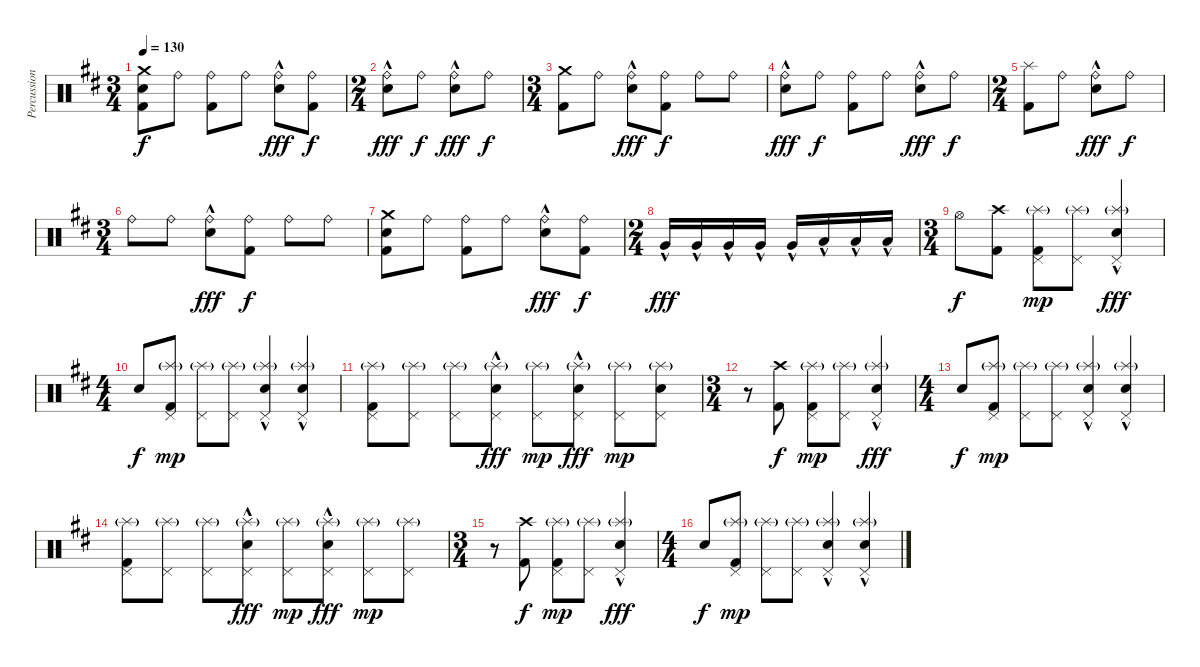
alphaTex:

\track ("Percussion" "Percussion") {instrument percussion bank 110}
\staff {score}
\articulation defaults
\ts (3 4)
\tempo 130
\clef neutral
\ks d
("Crash medium (hit)" "Electric Snare (hit)" "Kick (hit) 2").8{dy f} "Ride (bell)".8 ("Ride (bell)" "Kick (hit) 2").8 "Ride (bell)".8 ("Ride (bell)" "Electric Snare (hit)"{hac}).8{dy fff} ("Ride (bell)" "Kick (hit) 2").8{dy f} |
\ts (2 4)
("Ride (bell)" "Electric Snare (hit)"{hac}).8{dy fff} "Ride (bell)".8{dy f} ("Ride (bell)" "Electric Snare (hit)"{hac}).8{dy fff} "Ride (bell)".8{dy f} |
\ts (3 4)
("Crash medium (hit)" "Kick (hit) 2").8 "Ride (bell)".8 ("Ride (bell)" "Electric Snare (hit)"{hac}).8{dy fff} ("Ride (bell)" "Kick (hit) 2").8{dy f} "Ride (bell)".8 "Ride (bell)".8 |
("Ride (bell)" "Electric Snare (hit)"{hac}).8{dy fff} "Ride (bell)".8{dy f} ("Ride (bell)" "Kick (hit) 2").8 "Ride (bell)".8 ("Ride (bell)" "Electric Snare (hit)"{hac}).8{dy fff} "Ride (bell)".8{dy f} |
\ts (2 4)
("Splash (hit)" "Kick (hit) 2").8 "Ride (bell)".8 ("Ride (bell)" "Electric Snare (hit)"{hac}).8{dy fff} "Ride (bell)".8{dy f} |
\ts (3 4)
"Ride (bell)".8 "Ride (bell)".8 ("Ride (bell)" "Electric Snare (hit)"{hac}).8{dy fff} ("Ride (bell)" "Kick (hit) 2").8{dy f} "Ride (bell)".8 "Ride (bell)".8 |
("Crash medium (hit)" "Electric Snare (hit)" "Kick (hit) 2").8 "Ride (bell)".8 ("Ride (bell)" "Kick (hit) 2").8 "Ride (bell)".8 ("Ride (bell)" "Electric Snare (hit)"{hac}).8{dy fff} ("Ride (bell)" "Kick (hit) 2").8{dy f} |
\ts (2 4)
"Very Low Tom (hit)"{hac}.16{dy fff} "Very Low Tom (hit)"{hac}.16 "Very Low Tom (hit)"{hac}.16 "Very Low Tom (hit)"{hac}.16 "Very Low Tom (hit)"{hac}.16 "Low Floor Tom (hit)"{hac}.16 "Low Floor Tom (hit)"{hac}.16 "Low Floor Tom (hit)"{hac}.16 |
\ts (3 4)
"Hi-Hat (open)".8{dy f} ("Crash high (hit)" "Kick (hit) 2").8 ("Splash (hit)"{g} "Pedal Hi-Hat (hit)" "Kick (hit) 2").8{dy mp} ("Splash (hit)"{g} "Pedal Hi-Hat (hit)").8 ("Splash (hit)"{g} "Pedal Hi-Hat (hit)" "Electric Snare (hit)"{hac}).4{dy fff} |
\ts (4 4)
"Electric Snare (hit)".8{dy f} ("Kick (hit) 2" "Pedal Hi-Hat (hit)" "Splash (hit)"{g}).8{dy mp} ("Pedal Hi-Hat (hit)" "Splash (hit)"{g}).8 ("Pedal Hi-Hat (hit)" "Splash (hit)"{g}).8 ("Electric Snare (hit)"{hac} "Pedal Hi-Hat (hit)" "Splash (hit)"{g}).4 ("Electric Snare (hit)"{hac} "Pedal Hi-Hat (hit)" "Splash (hit)"{g}).4 |
("Splash (hit)"{g} "Pedal Hi-Hat (hit)" "Kick (hit) 2").8 ("Splash (hit)"{g} "Pedal Hi-Hat (hit)").8 ("Splash (hit)"{g} "Pedal Hi-Hat (hit)").8 ("Splash (hit)"{g} "Pedal Hi-Hat (hit)" "Electric Snare (hit)"{hac}).8{dy fff} ("Splash (hit)"{g} "Pedal Hi-Hat (hit)").8{dy mp} ("Splash (hit)"{g} "Pedal Hi-Hat (hit)" "Electric Snare (hit)"{hac}).8{dy fff} ("Splash (hit)"{g} "Pedal Hi-Hat (hit)").8{dy mp} ("Splash (hit)"{g} "Pedal Hi-Hat (hit)" "Electric Snare (hit)").8 |
\ts (3 4)
r.8 ("Crash high (hit)" "Kick (hit) 2").8{dy f} ("Splash (hit)"{g} "Pedal Hi-Hat (hit)" "Kick (hit) 2").8{dy mp} ("Splash (hit)"{g} "Pedal Hi-Hat (hit)").8 ("Splash (hit)"{g} "Pedal Hi-Hat (hit)" "Electric Snare (hit)"{hac}).4{dy fff} |
\ts (4 4)
"Electric Snare (hit)".8{dy f} ("Kick (hit) 2" "Pedal Hi-Hat (hit)" "Splash (hit)"{g}).8{dy mp} ("Pedal Hi-Hat (hit)" "Splash (hit)"{g}).8 ("Pedal Hi-Hat (hit)" "Splash (hit)"{g}).8 ("Electric Snare (hit)"{hac} "Pedal Hi-Hat (hit)" "Splash (hit)"{g}).4 ("Electric Snare (hit)"{hac} "Pedal Hi-Hat (hit)" "Splash (hit)"{g}).4 |
("Splash (hit)"{g} "Pedal Hi-Hat (hit)" "Kick (hit) 2").8 ("Splash (hit)"{g} "Pedal Hi-Hat (hit)").8 ("Splash (hit)"{g} "Pedal Hi-Hat (hit)").8 ("Splash (hit)"{g} "Pedal Hi-Hat (hit)" "Electric Snare (hit)"{hac}).8{dy fff} ("Splash (hit)"{g} "Pedal Hi-Hat (hit)").8{dy mp} ("Splash (hit)"{g} "Pedal Hi-Hat (hit)" "Electric Snare (hit)"{hac}).8{dy fff} ("Splash (hit)"{g} "Pedal Hi-Hat (hit)").8{dy mp} ("Splash (hit)"{g} "Pedal Hi-Hat (hit)").8 |
\ts (3 4)
r.8 ("Crash high (hit)" "Kick (hit) 2").8{dy f} ("Splash (hit)"{g} "Pedal Hi-Hat (hit)" "Kick (hit) 2").8{dy mp} ("Splash (hit)"{g} "Pedal Hi-Hat (hit)").8 ("Splash (hit)"{g} "Pedal Hi-Hat (hit)" "Electric Snare (hit)"{hac}).4{dy fff} |
\ts (4 4)
"Electric Snare (hit)".8{dy f} ("Kick (hit) 2" "Pedal Hi-Hat (hit)" "Splash (hit)"{g}).8{dy mp} ("Pedal Hi-Hat (hit)" "Splash (hit)"{g}).8 ("Pedal Hi-Hat (hit)" "Splash (hit)"{g}).8 ("Electric Snare (hit)"{hac} "Pedal Hi-Hat (hit)" "Splash (hit)"{g}).4 ("Electric Snare (hit)"{hac} "Pedal Hi-Hat (hit)" "Splash (hit)"{g}).4
